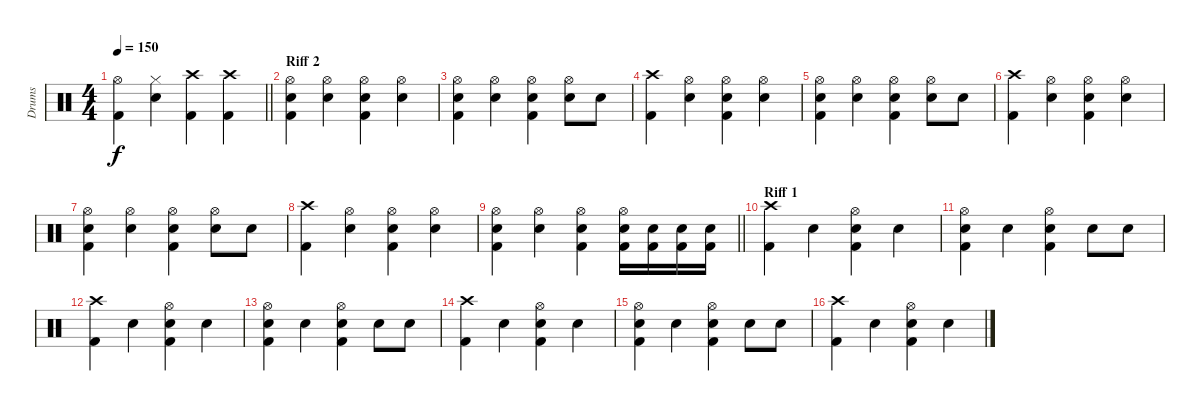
\track ("Drums" "Drums") {instrument percussion}
\staff
\articulation defaults
\ts (4 4)
\tempo 150
\clef neutral
\barLineRight lightlight
\ks c
("Hi-Hat (open)" "Kick (hit) 2").4{dy f} ("Hi-Hat (closed)" "Snare (hit) 2").4 ("Crash high (hit)" "Kick (hit) 2").4 ("Crash high (hit)" "Kick (hit) 2").4 |
\section ("" "Riff 2")
("Hi-Hat (open)" "Snare (hit) 2" "Kick (hit) 2").4 ("Hi-Hat (open)" "Snare (hit) 2").4 ("Hi-Hat (open)" "Snare (hit) 2" "Kick (hit) 2").4 ("Hi-Hat (open)" "Snare (hit) 2").4 |
("Hi-Hat (open)" "Snare (hit) 2" "Kick (hit) 2").4 ("Hi-Hat (open)" "Snare (hit) 2").4 ("Hi-Hat (open)" "Snare (hit) 2" "Kick (hit) 2").4 ("Hi-Hat (open)" "Snare (hit) 2").8 "Snare (hit) 2".8 |
("Crash high (hit)" "Kick (hit) 2").4 ("Hi-Hat (open)" "Snare (hit) 2").4 ("Hi-Hat (open)" "Snare (hit) 2" "Kick (hit) 2").4 ("Hi-Hat (open)" "Snare (hit) 2").4 |
("Hi-Hat (open)" "Snare (hit) 2" "Kick (hit) 2").4 ("Hi-Hat (open)" "Snare (hit) 2").4 ("Hi-Hat (open)" "Snare (hit) 2" "Kick (hit) 2").4 ("Hi-Hat (open)" "Snare (hit) 2").8 "Snare (hit) 2".8 |
("Crash high (hit)" "Kick (hit) 2").4 ("Hi-Hat (open)" "Snare (hit) 2").4 ("Hi-Hat (open)" "Snare (hit) 2" "Kick (hit) 2").4 ("Hi-Hat (open)" "Snare (hit) 2").4 |
("Hi-Hat (open)" "Snare (hit) 2" "Kick (hit) 2").4 ("Hi-Hat (open)" "Snare (hit) 2").4 ("Hi-Hat (open)" "Snare (hit) 2" "Kick (hit) 2").4 ("Hi-Hat (open)" "Snare (hit) 2").8 "Snare (hit) 2".8 |
("Crash high (hit)" "Kick (hit) 2").4 ("Hi-Hat (open)" "Snare (hit) 2").4 ("Hi-Hat (open)" "Snare (hit) 2" "Kick (hit) 2").4 ("Hi-Hat (open)" "Snare (hit) 2").4 |
\barLineRight lightlight
("Hi-Hat (open)" "Snare (hit) 2" "Kick (hit) 2").4 ("Hi-Hat (open)" "Snare (hit) 2").4 ("Hi-Hat (open)" "Snare (hit) 2" "Kick (hit) 2").4 ("Hi-Hat (open)" "Snare (hit) 2" "Kick (hit) 2").16 ("Snare (hit) 2" "Kick (hit) 2").16 ("Snare (hit) 2" "Kick (hit) 2").16 ("Snare (hit) 2" "Kick (hit) 2").16 |
\section ("" "Riff 1")
("Crash high (hit)" "Kick (hit) 2").4 "Snare (hit) 2".4 ("Hi-Hat (open)" "Snare (hit) 2" "Kick (hit) 2").4 "Snare (hit) 2".4 |
("Hi-Hat (open)" "Snare (hit) 2" "Kick (hit) 2").4 "Snare (hit) 2".4 ("Hi-Hat (open)" "Snare (hit) 2" "Kick (hit) 2").4 "Snare (hit) 2".8 "Snare (hit) 2".8 |
("Crash high (hit)" "Kick (hit) 2").4 "Snare (hit) 2".4 ("Hi-Hat (open)" "Snare (hit) 2" "Kick (hit) 2").4 "Snare (hit) 2".4 |
("Hi-Hat (open)" "Snare (hit) 2" "Kick (hit) 2").4 "Snare (hit) 2".4 ("Hi-Hat (open)" "Snare (hit) 2" "Kick (hit) 2").4 "Snare (hit) 2".8 "Snare (hit) 2".8 |
("Crash high (hit)" "Kick (hit) 2").4 "Snare (hit) 2".4 ("Hi-Hat (open)" "Snare (hit) 2" "Kick (hit) 2").4 "Snare (hit) 2".4 |
("Hi-Hat (open)" "Snare (hit) 2" "Kick (hit) 2").4 "Snare (hit) 2".4 ("Hi-Hat (open)" "Snare (hit) 2" "Kick (hit) 2").4 "Snare (hit) 2".8 "Snare (hit) 2".8 |
("Crash high (hit)" "Kick (hit) 2").4 "Snare (hit) 2".4 ("Hi-Hat (open)" "Snare (hit) 2" "Kick (hit) 2").4 "Snare (hit) 2".4
